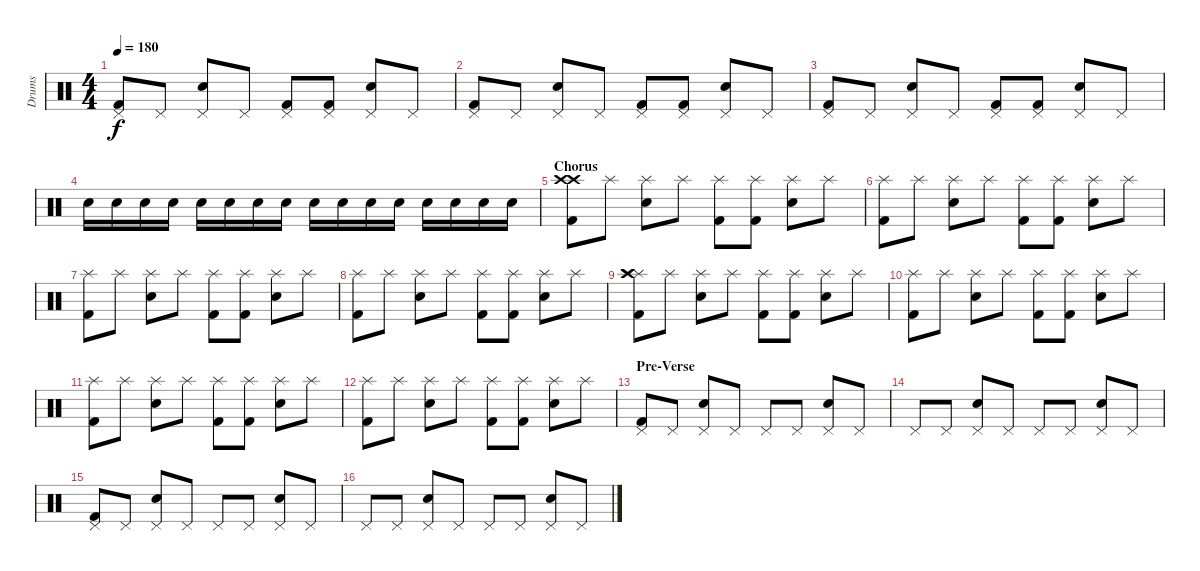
\track ("Drums" "Drums") {instrument percussion}
\staff {score}
\articulation defaults
\ts (4 4)
\tempo 180
\clef neutral
\ks c
("Pedal Hi-Hat (hit)" "Kick (hit) 2").8{dy f} "Pedal Hi-Hat (hit)".8 ("Pedal Hi-Hat (hit)" "Electric Snare (hit)").8 "Pedal Hi-Hat (hit)".8 ("Pedal Hi-Hat (hit)" "Kick (hit) 2").8 ("Pedal Hi-Hat (hit)" "Kick (hit) 2").8 ("Pedal Hi-Hat (hit)" "Electric Snare (hit)").8 "Pedal Hi-Hat (hit)".8 |
("Pedal Hi-Hat (hit)" "Kick (hit) 2").8 "Pedal Hi-Hat (hit)".8 ("Pedal Hi-Hat (hit)" "Electric Snare (hit)").8 "Pedal Hi-Hat (hit)".8 ("Pedal Hi-Hat (hit)" "Kick (hit) 2").8 ("Pedal Hi-Hat (hit)" "Kick (hit) 2").8 ("Pedal Hi-Hat (hit)" "Electric Snare (hit)").8 "Pedal Hi-Hat (hit)".8 |
("Pedal Hi-Hat (hit)" "Kick (hit) 2").8 "Pedal Hi-Hat (hit)".8 ("Pedal Hi-Hat (hit)" "Electric Snare (hit)").8 "Pedal Hi-Hat (hit)".8 ("Pedal Hi-Hat (hit)" "Kick (hit) 2").8 ("Pedal Hi-Hat (hit)" "Kick (hit) 2").8 ("Pedal Hi-Hat (hit)" "Electric Snare (hit)").8 "Pedal Hi-Hat (hit)".8 |
"Electric Snare (hit)".16 "Electric Snare (hit)".16 "Electric Snare (hit)".16 "Electric Snare (hit)".16 "Electric Snare (hit)".16 "Electric Snare (hit)".16 "Electric Snare (hit)".16 "Electric Snare (hit)".16 "Electric Snare (hit)".16 "Electric Snare (hit)".16 "Electric Snare (hit)".16 "Electric Snare (hit)".16 "Electric Snare (hit)".16 "Electric Snare (hit)".16 "Electric Snare (hit)".16 "Electric Snare (hit)".16 |
\section ("" "Chorus")
("Kick (hit) 2" "Crash high (hit)" "Crash high (hit)").8 "Splash (hit)".8 ("Splash (hit)" "Electric Snare (hit)").8 "Splash (hit)".8 ("Splash (hit)" "Kick (hit) 2").8 ("Splash (hit)" "Kick (hit) 2").8 ("Splash (hit)" "Electric Snare (hit)").8 "Splash (hit)".8 |
("Splash (hit)" "Kick (hit) 2").8 "Splash (hit)".8 ("Splash (hit)" "Electric Snare (hit)").8 "Splash (hit)".8 ("Splash (hit)" "Kick (hit) 2").8 ("Splash (hit)" "Kick (hit) 2").8 ("Splash (hit)" "Electric Snare (hit)").8 "Splash (hit)".8 |
("Splash (hit)" "Kick (hit) 2").8 "Splash (hit)".8 ("Splash (hit)" "Electric Snare (hit)").8 "Splash (hit)".8 ("Splash (hit)" "Kick (hit) 2").8 ("Splash (hit)" "Kick (hit) 2").8 ("Splash (hit)" "Electric Snare (hit)").8 "Splash (hit)".8 |
("Splash (hit)" "Kick (hit) 2").8 "Splash (hit)".8 ("Splash (hit)" "Electric Snare (hit)").8 "Splash (hit)".8 ("Splash (hit)" "Kick (hit) 2").8 ("Splash (hit)" "Kick (hit) 2").8 ("Splash (hit)" "Electric Snare (hit)").8 "Splash (hit)".8 |
("Splash (hit)" "Kick (hit) 2" "Crash high (hit)" "Crash high (hit)").8 "Splash (hit)".8 ("Splash (hit)" "Electric Snare (hit)").8 "Splash (hit)".8 ("Splash (hit)" "Kick (hit) 2").8 ("Splash (hit)" "Kick (hit) 2").8 ("Splash (hit)" "Electric Snare (hit)").8 "Splash (hit)".8 |
("Splash (hit)" "Kick (hit) 2").8 "Splash (hit)".8 ("Splash (hit)" "Electric Snare (hit)").8 "Splash (hit)".8 ("Splash (hit)" "Kick (hit) 2").8 ("Splash (hit)" "Kick (hit) 2").8 ("Splash (hit)" "Electric Snare (hit)").8 "Splash (hit)".8 |
("Splash (hit)" "Kick (hit) 2").8 "Splash (hit)".8 ("Splash (hit)" "Electric Snare (hit)").8 "Splash (hit)".8 ("Splash (hit)" "Kick (hit) 2").8 ("Splash (hit)" "Kick (hit) 2").8 ("Splash (hit)" "Electric Snare (hit)").8 "Splash (hit)".8 |
("Splash (hit)" "Kick (hit) 2").8 "Splash (hit)".8 ("Splash (hit)" "Electric Snare (hit)").8 "Splash (hit)".8 ("Splash (hit)" "Kick (hit) 2").8 ("Splash (hit)" "Kick (hit) 2").8 ("Splash (hit)" "Electric Snare (hit)").8 "Splash (hit)".8 |
\section ("" "Pre-Verse")
("Pedal Hi-Hat (hit)" "Kick (hit) 2").8 "Pedal Hi-Hat (hit)".8 ("Pedal Hi-Hat (hit)" "Electric Snare (hit)").8 "Pedal Hi-Hat (hit)".8 "Pedal Hi-Hat (hit)".8 "Pedal Hi-Hat (hit)".8 ("Pedal Hi-Hat (hit)" "Electric Snare (hit)").8 "Pedal Hi-Hat (hit)".8 |
"Pedal Hi-Hat (hit)".8 "Pedal Hi-Hat (hit)".8 ("Pedal Hi-Hat (hit)" "Electric Snare (hit)").8 "Pedal Hi-Hat (hit)".8 "Pedal Hi-Hat (hit)".8 "Pedal Hi-Hat (hit)".8 ("Pedal Hi-Hat (hit)" "Electric Snare (hit)").8 "Pedal Hi-Hat (hit)".8 |
("Pedal Hi-Hat (hit)" "Kick (hit) 2").8 "Pedal Hi-Hat (hit)".8 ("Pedal Hi-Hat (hit)" "Electric Snare (hit)").8 "Pedal Hi-Hat (hit)".8 "Pedal Hi-Hat (hit)".8 "Pedal Hi-Hat (hit)".8 ("Pedal Hi-Hat (hit)" "Electric Snare (hit)").8 "Pedal Hi-Hat (hit)".8 |
"Pedal Hi-Hat (hit)".8 "Pedal Hi-Hat (hit)".8 ("Pedal Hi-Hat (hit)" "Electric Snare (hit)").8 "Pedal Hi-Hat (hit)".8 "Pedal Hi-Hat (hit)".8 "Pedal Hi-Hat (hit)".8 ("Pedal Hi-Hat (hit)" "Electric Snare (hit)").8 "Pedal Hi-Hat (hit)".8
